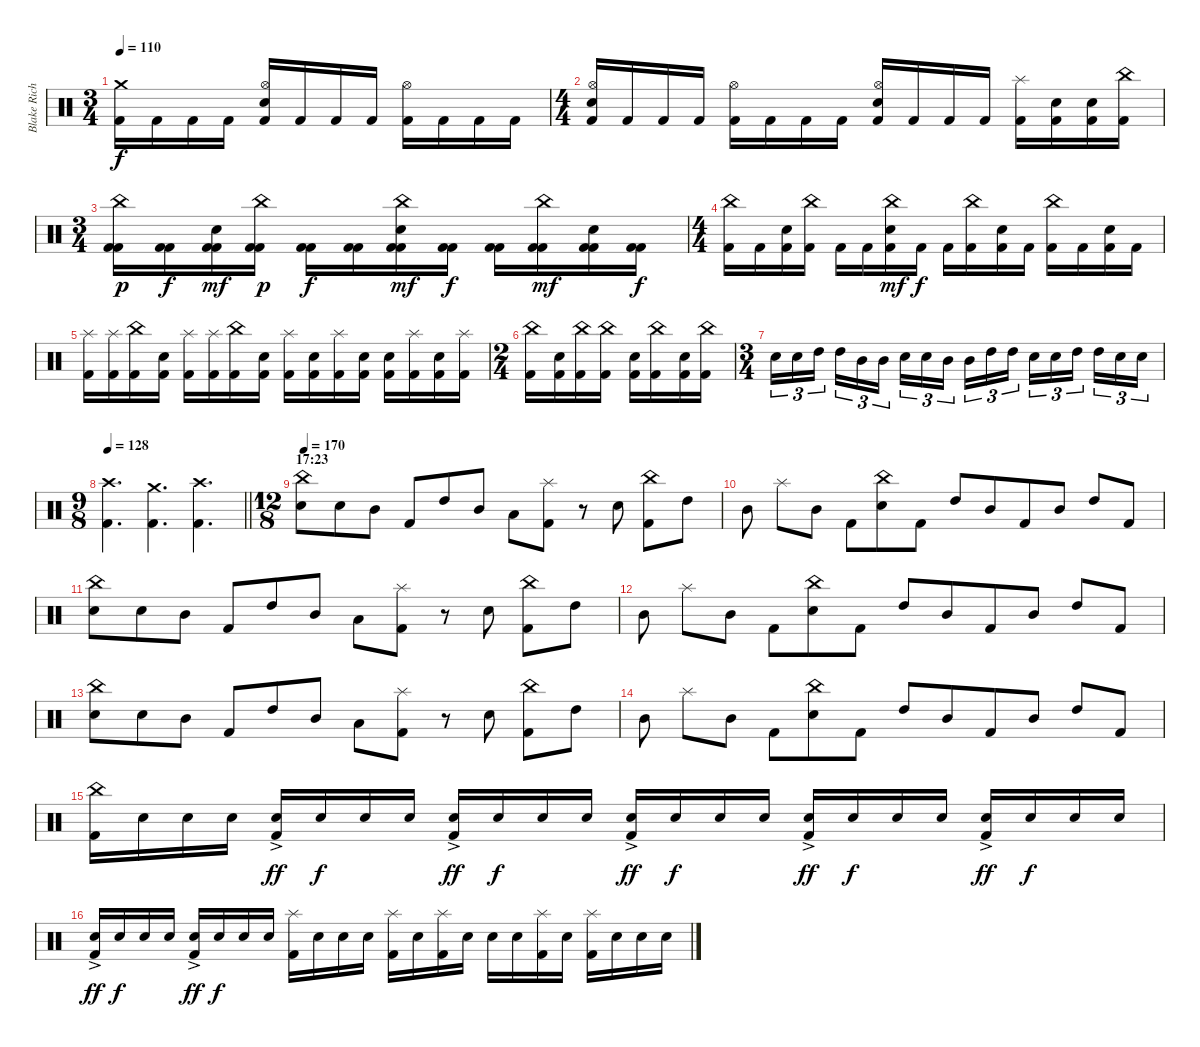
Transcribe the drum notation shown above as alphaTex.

\track ("Blake Richardson" "Blake Rich") {instrument percussion}
\staff {score}
\articulation defaults
\ts (3 4)
\tempo 110
\clef neutral
\ks c
("Crash medium (hit)" "Kick (hit) 2").16{dy f} "Kick (hit) 2".16 "Kick (hit) 2".16 "Kick (hit) 2".16 ("Hi-Hat (open)" "Electric Snare (hit)" "Kick (hit) 2").16 "Kick (hit) 2".16 "Kick (hit) 2".16 "Kick (hit) 2".16 ("Hi-Hat (open)" "Kick (hit) 2").16 "Kick (hit) 2".16 "Kick (hit) 2".16 "Kick (hit) 2".16 |
\ts (4 4)
("Hi-Hat (open)" "Electric Snare (hit)" "Kick (hit) 2").16 "Kick (hit) 2".16 "Kick (hit) 2".16 "Kick (hit) 2".16 ("Hi-Hat (open)" "Kick (hit) 2").16 "Kick (hit) 2".16 "Kick (hit) 2".16 "Kick (hit) 2".16 ("Hi-Hat (open)" "Electric Snare (hit)" "Kick (hit) 2").16 "Kick (hit) 2".16 "Kick (hit) 2".16 "Kick (hit) 2".16 ("Splash (hit)" "Kick (hit) 2").16 ("Electric Snare (hit)" "Kick (hit) 2").16 ("Electric Snare (hit)" "Kick (hit) 2").16 ("China (hit)" "Kick (hit) 2").16 |
\ts (3 4)
("Kick (hit) 2" "China (hit)" "Kick (hit) 2").16{dy p} ("Kick (hit) 2" "Kick (hit) 2").16{dy f} ("Kick (hit) 2" "Electric Snare (hit)" "Kick (hit) 2").16{dy mf} ("Kick (hit) 2" "China (hit)" "Kick (hit) 2").16{dy p} ("Kick (hit) 2" "Kick (hit) 2").16{dy f} ("Kick (hit) 2" "Kick (hit) 2").16 ("Kick (hit) 2" "China (hit)" "Electric Snare (hit)" "Kick (hit) 2").16{dy mf} ("Kick (hit) 2" "Kick (hit) 2").16{dy f} ("Kick (hit) 2" "Kick (hit) 2").16 ("Kick (hit) 2" "China (hit)" "Kick (hit) 2").16{dy mf} ("Kick (hit) 2" "Electric Snare (hit)" "Kick (hit) 2").16 ("Kick (hit) 2" "Kick (hit) 2").16{dy f} |
\ts (4 4)
("China (hit)" "Kick (hit) 2").16 "Kick (hit) 2".16 ("Electric Snare (hit)" "Kick (hit) 2").16 ("China (hit)" "Kick (hit) 2").16 "Kick (hit) 2".16 "Kick (hit) 2".16 ("China (hit)" "Electric Snare (hit)" "Kick (hit) 2").16{dy mf} "Kick (hit) 2".16{dy f} "Kick (hit) 2".16 ("China (hit)" "Kick (hit) 2").16 ("Electric Snare (hit)" "Kick (hit) 2").16 "Kick (hit) 2".16 ("China (hit)" "Kick (hit) 2").16 "Kick (hit) 2".16 ("Electric Snare (hit)" "Kick (hit) 2").16 "Kick (hit) 2".16 |
("Splash (hit)" "Kick (hit) 2").16 ("Splash (hit)" "Kick (hit) 2").16 ("China (hit)" "Kick (hit) 2").16 ("Electric Snare (hit)" "Kick (hit) 2").16 ("Splash (hit)" "Kick (hit) 2").16 ("Splash (hit)" "Kick (hit) 2").16 ("China (hit)" "Kick (hit) 2").16 ("Electric Snare (hit)" "Kick (hit) 2").16 ("Splash (hit)" "Kick (hit) 2").16 ("Electric Snare (hit)" "Kick (hit) 2").16 ("Splash (hit)" "Kick (hit) 2").16 ("Electric Snare (hit)" "Kick (hit) 2").16 ("Electric Snare (hit)" "Kick (hit) 2").16 ("Splash (hit)" "Kick (hit) 2").16 ("Electric Snare (hit)" "Kick (hit) 2").16 ("Splash (hit)" "Kick (hit) 2").16 |
\ts (2 4)
("China (hit)" "Kick (hit) 2").16 ("Electric Snare (hit)" "Kick (hit) 2").16 ("China (hit)" "Kick (hit) 2").16 ("China (hit)" "Kick (hit) 2").16 ("Electric Snare (hit)" "Kick (hit) 2").16 ("China (hit)" "Kick (hit) 2").16 ("Electric Snare (hit)" "Kick (hit) 2").16 ("China (hit)" "Kick (hit) 2").16 |
\ts (3 4)
"Electric Snare (hit)".16{tu (3 2)} "Electric Snare (hit)".16{tu (3 2)} "High Tom (hit)".16{tu (3 2) beam splitsecondary} "High Tom (hit)".16{tu (3 2)} "Mid Tom (hit)".16{tu (3 2)} "Mid Tom (hit)".16{tu (3 2)} "Electric Snare (hit)".16{tu (3 2)} "Electric Snare (hit)".16{tu (3 2)} "Mid Tom (hit)".16{tu (3 2) beam splitsecondary} "Mid Tom (hit)".16{tu (3 2)} "High Tom (hit)".16{tu (3 2)} "High Tom (hit)".16{tu (3 2)} "Electric Snare (hit)".16{tu (3 2)} "Electric Snare (hit)".16{tu (3 2)} "High Tom (hit)".16{tu (3 2) beam splitsecondary} "High Tom (hit)".16{tu (3 2)} "Electric Snare (hit)".16{tu (3 2)} "Electric Snare (hit)".16{tu (3 2)} |
\ts (9 8)
\tempo 128
\barLineRight lightlight
("Crash high (hit)" "Kick (hit) 2").4{d} ("Crash medium (hit)" "Kick (hit) 2").4{d} ("Crash high (hit)" "Kick (hit) 2").4{d} |
\ts (12 8)
\section ("" "17:23")
\tempo 170
("China (hit)" "Electric Snare (hit)").8 "Electric Snare (hit)".8 "Mid Tom (hit)".8 "Kick (hit) 2".8 "High Tom (hit)".8 "Mid Tom (hit)".8 "Low Tom (hit)".8 ("Splash (hit)" "Kick (hit) 2").8 r.8 "Electric Snare (hit)".8{beam split} ("China (hit)" "Kick (hit) 2").8 "High Tom (hit)".8 |
"Mid Tom (hit)".8{beam split} "Splash (hit)".8{beam merge} "Mid Tom (hit)".8 "Kick (hit) 2".8 ("China (hit)" "Electric Snare (hit)").8 "Kick (hit) 2".8 "High Tom (hit)".8 "Mid Tom (hit)".8 "Kick (hit) 2".8{beam merge} "Mid Tom (hit)".8{beam split} "High Tom (hit)".8 "Kick (hit) 2".8 |
("China (hit)" "Electric Snare (hit)").8 "Electric Snare (hit)".8 "Mid Tom (hit)".8 "Kick (hit) 2".8 "High Tom (hit)".8 "Mid Tom (hit)".8 "Low Tom (hit)".8 ("Splash (hit)" "Kick (hit) 2").8 r.8 "Electric Snare (hit)".8{beam split} ("China (hit)" "Kick (hit) 2").8 "High Tom (hit)".8 |
"Mid Tom (hit)".8{beam split} "Splash (hit)".8{beam merge} "Mid Tom (hit)".8 "Kick (hit) 2".8 ("China (hit)" "Electric Snare (hit)").8 "Kick (hit) 2".8 "High Tom (hit)".8 "Mid Tom (hit)".8 "Kick (hit) 2".8{beam merge} "Mid Tom (hit)".8{beam split} "High Tom (hit)".8 "Kick (hit) 2".8 |
("China (hit)" "Electric Snare (hit)").8 "Electric Snare (hit)".8 "Mid Tom (hit)".8 "Kick (hit) 2".8 "High Tom (hit)".8 "Mid Tom (hit)".8 "Low Tom (hit)".8 ("Splash (hit)" "Kick (hit) 2").8 r.8 "Electric Snare (hit)".8{beam split} ("China (hit)" "Kick (hit) 2").8 "High Tom (hit)".8 |
"Mid Tom (hit)".8{beam split} "Splash (hit)".8{beam merge} "Mid Tom (hit)".8 "Kick (hit) 2".8 ("China (hit)" "Electric Snare (hit)").8 "Kick (hit) 2".8 "High Tom (hit)".8 "Mid Tom (hit)".8 "Kick (hit) 2".8{beam merge} "Mid Tom (hit)".8{beam split} "High Tom (hit)".8 "Kick (hit) 2".8 |
("China (hit)" "Kick (hit) 2").16 "Electric Snare (hit)".16 "Electric Snare (hit)".16 "Electric Snare (hit)".16{beam split} ("Electric Snare (hit)"{ac} "Kick (hit) 2").16{dy ff} "Electric Snare (hit)".16{dy f beam merge} "Electric Snare (hit)".16 "Electric Snare (hit)".16{beam split} ("Electric Snare (hit)"{ac} "Kick (hit) 2").16{dy ff} "Electric Snare (hit)".16{dy f} "Electric Snare (hit)".16 "Electric Snare (hit)".16{beam split} ("Electric Snare (hit)"{ac} "Kick (hit) 2").16{dy ff} "Electric Snare (hit)".16{dy f} "Electric Snare (hit)".16 "Electric Snare (hit)".16{beam split} ("Electric Snare (hit)"{ac} "Kick (hit) 2").16{dy ff} "Electric Snare (hit)".16{dy f beam merge} "Electric Snare (hit)".16 "Electric Snare (hit)".16{beam split} ("Electric Snare (hit)"{ac} "Kick (hit) 2").16{dy ff} "Electric Snare (hit)".16{dy f} "Electric Snare (hit)".16 "Electric Snare (hit)".16 |
("Electric Snare (hit)"{ac} "Kick (hit) 2").16{dy ff} "Electric Snare (hit)".16{dy f} "Electric Snare (hit)".16 "Electric Snare (hit)".16{beam split} ("Electric Snare (hit)"{ac} "Kick (hit) 2").16{dy ff} "Electric Snare (hit)".16{dy f beam merge} "Electric Snare (hit)".16 "Electric Snare (hit)".16{beam split} ("Splash (hit)" "Kick (hit) 2").16 "Electric Snare (hit)".16 "Electric Snare (hit)".16 "Electric Snare (hit)".16{beam split} ("Splash (hit)" "Kick (hit) 2").16 "Electric Snare (hit)".16 ("Splash (hit)" "Kick (hit) 2").16 "Electric Snare (hit)".16{beam split} "Electric Snare (hit)".16 "Electric Snare (hit)".16{beam merge} ("Splash (hit)" "Kick (hit) 2").16 "Electric Snare (hit)".16{beam split} ("Splash (hit)" "Kick (hit) 2").16 "Electric Snare (hit)".16 "Electric Snare (hit)".16 "Electric Snare (hit)".16
